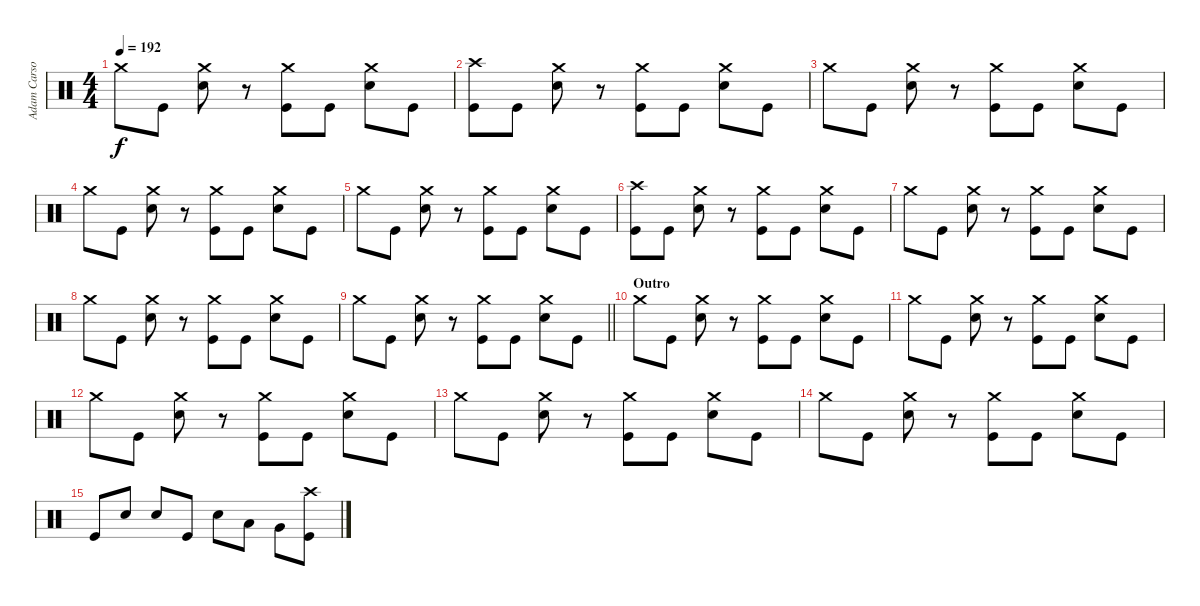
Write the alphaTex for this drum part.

\track ("Adam Carson" "Adam Carso") {instrument percussion}
\staff {score}
\articulation defaults
\ts (4 4)
\tempo 192
\clef neutral
\ks c "Crash medium (hit)".8{dy f} "Kick (hit)".8
("Crash medium (hit)" "Electric Snare (hit)").8 r.8 ("Crash medium (hit)" "Kick (hit)").8 "Kick (hit)".8 ("Crash medium (hit)" "Electric Snare (hit)").8 "Kick (hit)".8 |
("Crash high (hit)" "Kick (hit)").8 "Kick (hit)".8 ("Crash medium (hit)" "Electric Snare (hit)").8 r.8 ("Crash medium (hit)" "Kick (hit)").8 "Kick (hit)".8 ("Crash medium (hit)" "Electric Snare (hit)").8 "Kick (hit)".8 |
"Crash medium (hit)".8 "Kick (hit)".8 ("Crash medium (hit)" "Electric Snare (hit)").8 r.8 ("Crash medium (hit)" "Kick (hit)").8 "Kick (hit)".8 ("Crash medium (hit)" "Electric Snare (hit)").8 "Kick (hit)".8 |
"Crash medium (hit)".8 "Kick (hit)".8 ("Crash medium (hit)" "Electric Snare (hit)").8 r.8 ("Crash medium (hit)" "Kick (hit)").8 "Kick (hit)".8 ("Crash medium (hit)" "Electric Snare (hit)").8 "Kick (hit)".8 |
"Crash medium (hit)".8 "Kick (hit)".8 ("Crash medium (hit)" "Electric Snare (hit)").8 r.8 ("Crash medium (hit)" "Kick (hit)").8 "Kick (hit)".8 ("Crash medium (hit)" "Electric Snare (hit)").8 "Kick (hit)".8 |
("Crash high (hit)" "Kick (hit)").8 "Kick (hit)".8 ("Crash medium (hit)" "Electric Snare (hit)").8 r.8 ("Crash medium (hit)" "Kick (hit)").8 "Kick (hit)".8 ("Crash medium (hit)" "Electric Snare (hit)").8 "Kick (hit)".8 |
"Crash medium (hit)".8 "Kick (hit)".8 ("Crash medium (hit)" "Electric Snare (hit)").8 r.8 ("Crash medium (hit)" "Kick (hit)").8 "Kick (hit)".8 ("Crash medium (hit)" "Electric Snare (hit)").8 "Kick (hit)".8 |
"Crash medium (hit)".8 "Kick (hit)".8 ("Crash medium (hit)" "Electric Snare (hit)").8 r.8 ("Crash medium (hit)" "Kick (hit)").8 "Kick (hit)".8 ("Crash medium (hit)" "Electric Snare (hit)").8 "Kick (hit)".8 |
\barLineRight lightlight "Crash medium (hit)".8 "Kick (hit)".8
("Crash medium (hit)" "Electric Snare (hit)").8 r.8 ("Crash medium (hit)" "Kick (hit)").8 "Kick (hit)".8 ("Crash medium (hit)" "Electric Snare (hit)").8 "Kick (hit)".8 |
\section ("" "Outro")
"Crash medium (hit)".8 "Kick (hit)".8 ("Crash medium (hit)" "Electric Snare (hit)").8 r.8 ("Crash medium (hit)" "Kick (hit)").8 "Kick (hit)".8 ("Crash medium (hit)" "Electric Snare (hit)").8 "Kick (hit)".8 |
"Crash medium (hit)".8 "Kick (hit)".8 ("Crash medium (hit)" "Electric Snare (hit)").8 r.8 ("Crash medium (hit)" "Kick (hit)").8 "Kick (hit)".8 ("Crash medium (hit)" "Electric Snare (hit)").8 "Kick (hit)".8 |
"Crash medium (hit)".8 "Kick (hit)".8 ("Crash medium (hit)" "Electric Snare (hit)").8 r.8 ("Crash medium (hit)" "Kick (hit)").8 "Kick (hit)".8 ("Crash medium (hit)" "Electric Snare (hit)").8 "Kick (hit)".8 |
"Crash medium (hit)".8 "Kick (hit)".8 ("Crash medium (hit)" "Electric Snare (hit)").8 r.8 ("Crash medium (hit)" "Kick (hit)").8 "Kick (hit)".8 ("Crash medium (hit)" "Electric Snare (hit)").8 "Kick (hit)".8 |
"Crash medium (hit)".8 "Kick (hit)".8 ("Crash medium (hit)" "Electric Snare (hit)").8 r.8 ("Crash medium (hit)" "Kick (hit)").8 "Kick (hit)".8 ("Crash medium (hit)" "Electric Snare (hit)").8 "Kick (hit)".8 |
"Kick (hit)".8 "Electric Snare (hit)".8 "Electric Snare (hit)".8 "Kick (hit)".8 "Electric Snare (hit)".8 "Low Tom (hit)".8 "Very Low Tom (hit)".8 ("Crash high (hit)" "Kick (hit)").8
